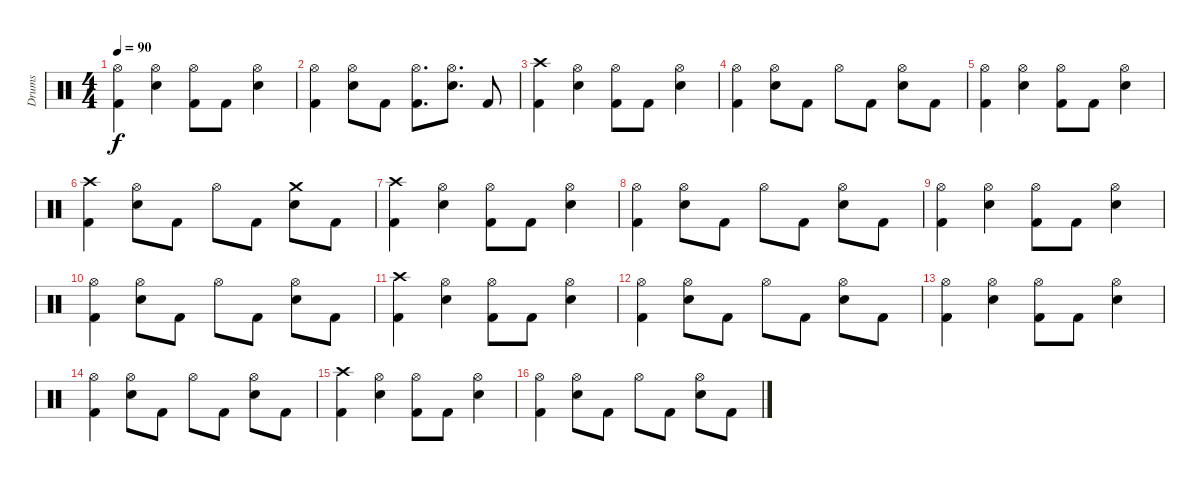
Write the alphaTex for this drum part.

\track ("Drums" "Drums") {instrument percussion}
\staff {score}
\articulation defaults
\ts (4 4)
\tempo 90
\clef neutral
\ks c
("Hi-Hat (open)" "Kick (hit) 2").4{dy f} ("Hi-Hat (open)" "Electric Snare (hit)").4 ("Hi-Hat (open)" "Kick (hit) 2").8 "Kick (hit) 2".8 ("Hi-Hat (open)" "Electric Snare (hit)").4 |
("Hi-Hat (open)" "Kick (hit) 2").4 ("Hi-Hat (open)" "Electric Snare (hit)").8 "Kick (hit) 2".8 ("Hi-Hat (open)" "Kick (hit) 2").8{d} ("Hi-Hat (open)" "Electric Snare (hit)").8{d} "Kick (hit) 2".8 |
("Crash high (hit)" "Kick (hit) 2").4 ("Hi-Hat (open)" "Electric Snare (hit)").4 ("Hi-Hat (open)" "Kick (hit) 2").8 "Kick (hit) 2".8 ("Hi-Hat (open)" "Electric Snare (hit)").4 |
("Hi-Hat (open)" "Kick (hit) 2").4 ("Hi-Hat (open)" "Electric Snare (hit)").8 "Kick (hit) 2".8 "Hi-Hat (open)".8 "Kick (hit) 2".8 ("Hi-Hat (open)" "Electric Snare (hit)").8 "Kick (hit) 2".8 |
("Hi-Hat (open)" "Kick (hit) 2").4 ("Hi-Hat (open)" "Electric Snare (hit)").4 ("Hi-Hat (open)" "Kick (hit) 2").8 "Kick (hit) 2".8 ("Hi-Hat (open)" "Electric Snare (hit)").4 |
("Crash high (hit)" "Kick (hit) 2").4 ("Hi-Hat (open)" "Electric Snare (hit)").8 "Kick (hit) 2".8 "Hi-Hat (open)".8 "Kick (hit) 2".8 ("Crash medium (hit)" "Electric Snare (hit)").8 "Kick (hit) 2".8 |
("Crash high (hit)" "Kick (hit) 2").4 ("Hi-Hat (open)" "Electric Snare (hit)").4 ("Hi-Hat (open)" "Kick (hit) 2").8 "Kick (hit) 2".8 ("Hi-Hat (open)" "Electric Snare (hit)").4 |
("Hi-Hat (open)" "Kick (hit) 2").4 ("Hi-Hat (open)" "Electric Snare (hit)").8 "Kick (hit) 2".8 "Hi-Hat (open)".8 "Kick (hit) 2".8 ("Hi-Hat (open)" "Electric Snare (hit)").8 "Kick (hit) 2".8 |
("Hi-Hat (open)" "Kick (hit) 2").4 ("Hi-Hat (open)" "Electric Snare (hit)").4 ("Hi-Hat (open)" "Kick (hit) 2").8 "Kick (hit) 2".8 ("Hi-Hat (open)" "Electric Snare (hit)").4 |
("Hi-Hat (open)" "Kick (hit) 2").4 ("Hi-Hat (open)" "Electric Snare (hit)").8 "Kick (hit) 2".8 "Hi-Hat (open)".8 "Kick (hit) 2".8 ("Hi-Hat (open)" "Electric Snare (hit)").8 "Kick (hit) 2".8 |
("Crash high (hit)" "Kick (hit) 2").4 ("Hi-Hat (open)" "Electric Snare (hit)").4 ("Hi-Hat (open)" "Kick (hit) 2").8 "Kick (hit) 2".8 ("Hi-Hat (open)" "Electric Snare (hit)").4 |
("Hi-Hat (open)" "Kick (hit) 2").4 ("Hi-Hat (open)" "Electric Snare (hit)").8 "Kick (hit) 2".8 "Hi-Hat (open)".8 "Kick (hit) 2".8 ("Hi-Hat (open)" "Electric Snare (hit)").8 "Kick (hit) 2".8 |
("Hi-Hat (open)" "Kick (hit) 2").4 ("Hi-Hat (open)" "Electric Snare (hit)").4 ("Hi-Hat (open)" "Kick (hit) 2").8 "Kick (hit) 2".8 ("Hi-Hat (open)" "Electric Snare (hit)").4 |
("Hi-Hat (open)" "Kick (hit) 2").4 ("Hi-Hat (open)" "Electric Snare (hit)").8 "Kick (hit) 2".8 "Hi-Hat (open)".8 "Kick (hit) 2".8 ("Hi-Hat (open)" "Electric Snare (hit)").8 "Kick (hit) 2".8 |
("Crash high (hit)" "Kick (hit) 2").4 ("Hi-Hat (open)" "Electric Snare (hit)").4 ("Hi-Hat (open)" "Kick (hit) 2").8 "Kick (hit) 2".8 ("Hi-Hat (open)" "Electric Snare (hit)").4 |
("Hi-Hat (open)" "Kick (hit) 2").4 ("Hi-Hat (open)" "Electric Snare (hit)").8 "Kick (hit) 2".8 "Hi-Hat (open)".8 "Kick (hit) 2".8 ("Hi-Hat (open)" "Electric Snare (hit)").8 "Kick (hit) 2".8
